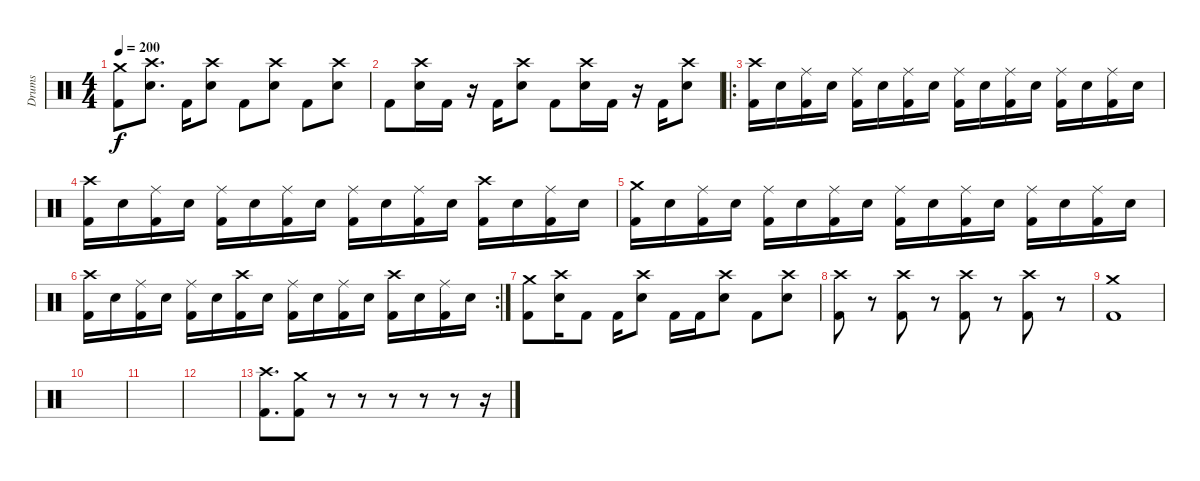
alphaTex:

\track ("Drums" "Drums") {instrument percussion}
\staff {score}
\articulation defaults
\ts (4 4)
\tempo 200
\clef neutral
\ks c
("Crash medium (hit)" "Kick (hit) 2").8{dy f} ("Crash high (hit)" "Electric Snare (hit)").8{d} "Kick (hit) 2".16 ("Crash high (hit)" "Electric Snare (hit)").8 "Kick (hit) 2".8 ("Crash high (hit)" "Electric Snare (hit)").8 "Kick (hit) 2".8 ("Crash high (hit)" "Electric Snare (hit)").8 |
"Kick (hit) 2".8 ("Crash high (hit)" "Electric Snare (hit)").16 "Kick (hit) 2".16 r.16 "Kick (hit) 2".16 ("Crash high (hit)" "Electric Snare (hit)").8 "Kick (hit) 2".8 ("Crash high (hit)" "Electric Snare (hit)").16 "Kick (hit) 2".16 r.16 "Kick (hit) 2".16 ("Crash high (hit)" "Electric Snare (hit)").8 |
\ro
("Crash high (hit)" "Kick (hit) 2").16 "Electric Snare (hit)".16 ("Ride (middle)" "Kick (hit) 2").16 "Electric Snare (hit)".16 ("Ride (middle)" "Kick (hit) 2").16 "Electric Snare (hit)".16 ("Ride (middle)" "Kick (hit) 2").16 "Electric Snare (hit)".16 ("Ride (middle)" "Kick (hit) 2").16 "Electric Snare (hit)".16 ("Ride (middle)" "Kick (hit) 2").16 "Electric Snare (hit)".16 ("Ride (middle)" "Kick (hit) 2").16 "Electric Snare (hit)".16 ("Ride (middle)" "Kick (hit) 2").16 "Electric Snare (hit)".16 |
("Crash high (hit)" "Kick (hit) 2").16 "Electric Snare (hit)".16 ("Ride (middle)" "Kick (hit) 2").16 "Electric Snare (hit)".16 ("Ride (middle)" "Kick (hit) 2").16 "Electric Snare (hit)".16 ("Ride (middle)" "Kick (hit) 2").16 "Electric Snare (hit)".16 ("Ride (middle)" "Kick (hit) 2").16 "Electric Snare (hit)".16 ("Ride (middle)" "Kick (hit) 2").16 "Electric Snare (hit)".16 ("Crash high (hit)" "Kick (hit) 2").16 "Electric Snare (hit)".16 ("Ride (middle)" "Kick (hit) 2").16 "Electric Snare (hit)".16 |
("Crash medium (hit)" "Kick (hit) 2").16 "Electric Snare (hit)".16 ("Ride (middle)" "Kick (hit) 2").16 "Electric Snare (hit)".16 ("Ride (middle)" "Kick (hit) 2").16 "Electric Snare (hit)".16 ("Ride (middle)" "Kick (hit) 2").16 "Electric Snare (hit)".16 ("Ride (middle)" "Kick (hit) 2").16 "Electric Snare (hit)".16 ("Ride (middle)" "Kick (hit) 2").16 "Electric Snare (hit)".16 ("Ride (middle)" "Kick (hit) 2").16 "Electric Snare (hit)".16 ("Ride (middle)" "Kick (hit) 2").16 "Electric Snare (hit)".16 |
\rc 2
("Crash high (hit)" "Kick (hit) 2").16 "Electric Snare (hit)".16 ("Ride (middle)" "Kick (hit) 2").16 "Electric Snare (hit)".16 ("Ride (middle)" "Kick (hit) 2").16 "Electric Snare (hit)".16 ("Crash high (hit)" "Kick (hit) 2").16 "Electric Snare (hit)".16 ("Ride (middle)" "Kick (hit) 2").16 "Electric Snare (hit)".16 ("Ride (middle)" "Kick (hit) 2").16 "Electric Snare (hit)".16 ("Crash high (hit)" "Kick (hit) 2").16 "Electric Snare (hit)".16 ("Ride (middle)" "Kick (hit) 2").16 "Electric Snare (hit)".16 |
("Crash medium (hit)" "Kick (hit) 2").8 ("Crash high (hit)" "Electric Snare (hit)").16 "Kick (hit) 2".8 "Kick (hit) 2".16 ("Crash high (hit)" "Electric Snare (hit)").8 "Kick (hit) 2".16 "Kick (hit) 2".16 ("Crash high (hit)" "Electric Snare (hit)").8 "Kick (hit) 2".8 ("Crash high (hit)" "Electric Snare (hit)").8 |
("Crash high (hit)" "Kick (hit) 2").8 r.8 ("Crash high (hit)" "Kick (hit) 2").8 r.8 ("Crash high (hit)" "Kick (hit) 2").8 r.8 ("Crash high (hit)" "Kick (hit) 2").8 r.8 |
("Crash medium (hit)" "Kick (hit) 2").1 |
|
|
|
("Crash high (hit)" "Kick (hit) 2").8{d} ("Crash medium (hit)" "Kick (hit) 2").8 r.8 r.8 r.8 r.8 r.8 r.16
